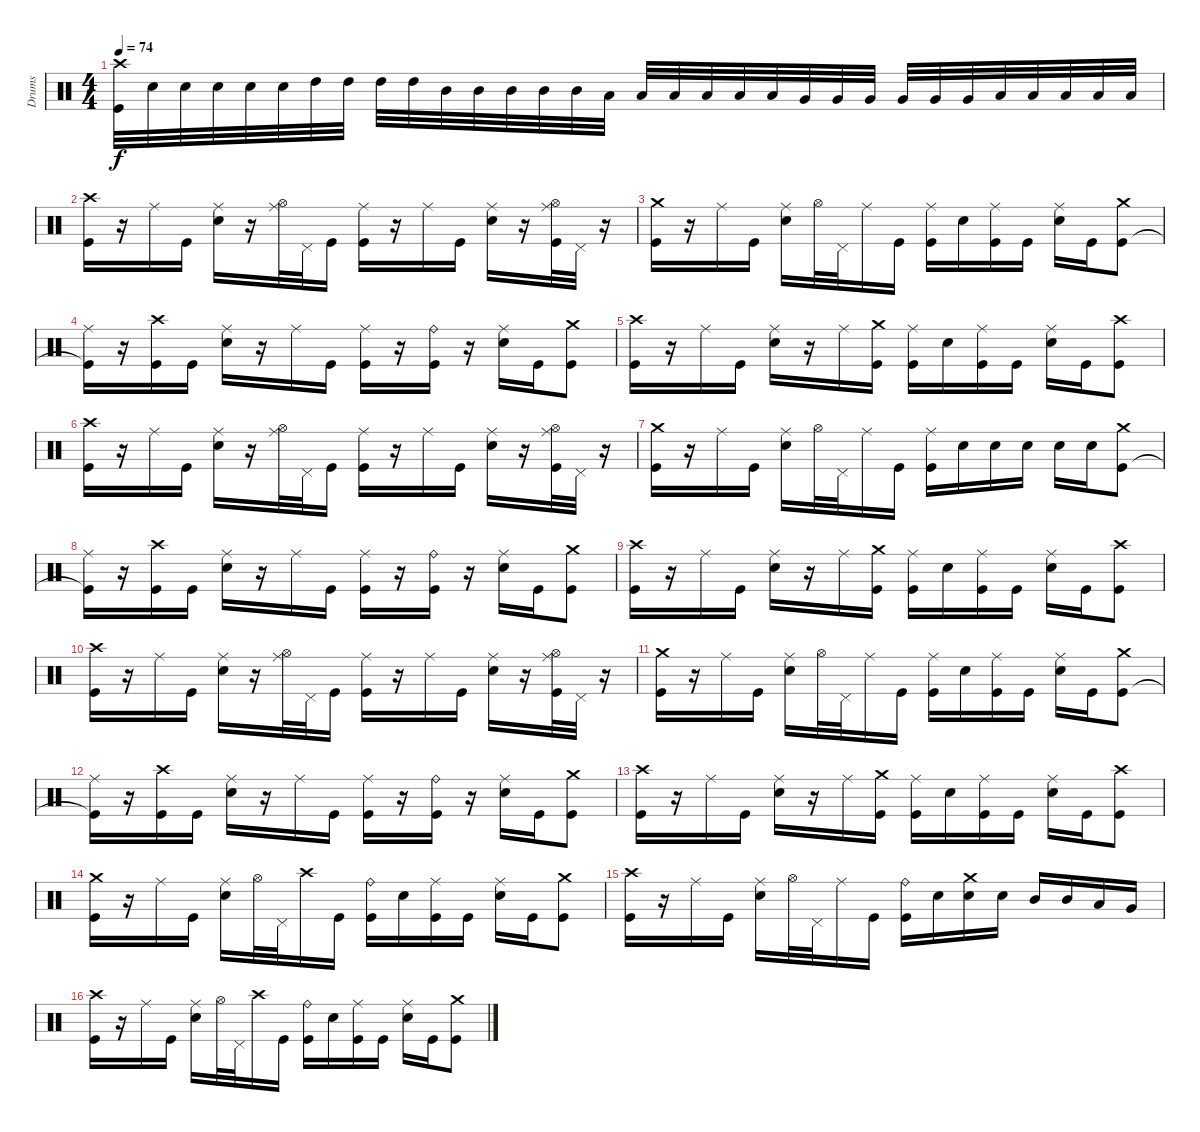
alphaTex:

\track ("Drums" "Drums") {instrument percussion}
\staff {score}
\articulation defaults
\ts (4 4)
\tempo 74
\clef neutral
\ks c
("Crash high (hit)" "Kick (hit)").32{dy f} "Electric Snare (hit)".32 "Electric Snare (hit)".32 "Electric Snare (hit)".32 "Electric Snare (hit)".32 "Electric Snare (hit)".32 "High Tom (hit)".32 "High Tom (hit)".32 "High Tom (hit)".32 "High Tom (hit)".32 "Mid Tom (hit)".32 "Mid Tom (hit)".32 "Mid Tom (hit)".32 "Mid Tom (hit)".32 "Mid Tom (hit)".32 "Low Tom (hit)".32 "Low Tom (hit)".32 "Low Tom (hit)".32 "Low Tom (hit)".32 "Low Tom (hit)".32 "Low Tom (hit)".32 "Very Low Tom (hit)".32 "Very Low Tom (hit)".32 "Very Low Tom (hit)".32 "Very Low Tom (hit)".32 "Very Low Tom (hit)".32 "Very Low Tom (hit)".32 "Low Floor Tom (hit)".32 "Low Floor Tom (hit)".32 "Low Floor Tom (hit)".32 "Low Floor Tom (hit)".32 "Low Floor Tom (hit)".32 |
("Crash high (hit)" "Kick (hit)").16 r.16 "Ride (middle)".16 "Kick (hit)".16 ("Ride (middle)" "Electric Snare (hit)").16 r.16 ("Ride (middle)" "Hi-Hat (open)").32 "Pedal Hi-Hat (hit)".32 "Kick (hit)".16 ("Ride (middle)" "Kick (hit)").16 r.16 "Ride (middle)".16 "Kick (hit)".16 ("Ride (middle)" "Electric Snare (hit)").16 r.16 ("Ride (middle)" "Kick (hit)" "Hi-Hat (open)").32 "Pedal Hi-Hat (hit)".32 r.16 |
("Crash medium (hit)" "Kick (hit)").16 r.16 "Ride (middle)".16 "Kick (hit)".16 ("Ride (middle)" "Electric Snare (hit)").16 "Hi-Hat (open)".32 "Pedal Hi-Hat (hit)".32 "Ride (middle)".16 "Kick (hit)".16 ("Ride (middle)" "Kick (hit)").16 "Electric Snare (hit)".16 ("Ride (middle)" "Kick (hit)").16 "Kick (hit)".16 ("Ride (middle)" "Electric Snare (hit)").16 "Kick (hit)".16 ("Crash medium (hit)" "Kick (hit)").8 |
("Ride (middle)" "Kick (hit)"{t}).16 r.16 ("Crash high (hit)" "Kick (hit)").16 "Kick (hit)".16 ("Ride (middle)" "Electric Snare (hit)").16 r.16 "Ride (middle)".16 "Kick (hit)".16 ("Ride (middle)" "Kick (hit)").16 r.16 ("Ride (bell)" "Kick (hit)").16 r.16 ("Ride (middle)" "Electric Snare (hit)").16 "Kick (hit)".16 ("Crash medium (hit)" "Kick (hit)").8 |
("Crash high (hit)" "Kick (hit)").16 r.16 "Ride (middle)".16 "Kick (hit)".16 ("Ride (middle)" "Electric Snare (hit)").16 r.16 "Ride (middle)".16 ("Crash medium (hit)" "Kick (hit)").16 ("Ride (middle)" "Kick (hit)").16 "Electric Snare (hit)".16 ("Ride (middle)" "Kick (hit)").16 "Kick (hit)".16 ("Ride (middle)" "Electric Snare (hit)").16 "Kick (hit)".16 ("Crash high (hit)" "Kick (hit)").8 |
("Crash high (hit)" "Kick (hit)").16 r.16 "Ride (middle)".16 "Kick (hit)".16 ("Ride (middle)" "Electric Snare (hit)").16 r.16 ("Ride (middle)" "Hi-Hat (open)").32 "Pedal Hi-Hat (hit)".32 "Kick (hit)".16 ("Ride (middle)" "Kick (hit)").16 r.16 "Ride (middle)".16 "Kick (hit)".16 ("Ride (middle)" "Electric Snare (hit)").16 r.16 ("Ride (middle)" "Kick (hit)" "Hi-Hat (open)").32 "Pedal Hi-Hat (hit)".32 r.16 |
("Crash medium (hit)" "Kick (hit)").16 r.16 "Ride (middle)".16 "Kick (hit)".16 ("Ride (middle)" "Electric Snare (hit)").16 "Hi-Hat (open)".32 "Pedal Hi-Hat (hit)".32 "Ride (middle)".16 "Kick (hit)".16 ("Ride (middle)" "Kick (hit)").16 "Electric Snare (hit)".16 "Electric Snare (hit)".16 "Electric Snare (hit)".16 "Electric Snare (hit)".16 "Electric Snare (hit)".16 ("Crash medium (hit)" "Kick (hit)").8 |
("Ride (middle)" "Kick (hit)"{t}).16 r.16 ("Crash high (hit)" "Kick (hit)").16 "Kick (hit)".16 ("Ride (middle)" "Electric Snare (hit)").16 r.16 "Ride (middle)".16 "Kick (hit)".16 ("Ride (middle)" "Kick (hit)").16 r.16 ("Ride (bell)" "Kick (hit)").16 r.16 ("Ride (middle)" "Electric Snare (hit)").16 "Kick (hit)".16 ("Crash medium (hit)" "Kick (hit)").8 |
("Crash high (hit)" "Kick (hit)").16 r.16 "Ride (middle)".16 "Kick (hit)".16 ("Ride (middle)" "Electric Snare (hit)").16 r.16 "Ride (middle)".16 ("Crash medium (hit)" "Kick (hit)").16 ("Ride (middle)" "Kick (hit)").16 "Electric Snare (hit)".16 ("Ride (middle)" "Kick (hit)").16 "Kick (hit)".16 ("Ride (middle)" "Electric Snare (hit)").16 "Kick (hit)".16 ("Crash high (hit)" "Kick (hit)").8 |
("Crash high (hit)" "Kick (hit)").16 r.16 "Ride (middle)".16 "Kick (hit)".16 ("Ride (middle)" "Electric Snare (hit)").16 r.16 ("Ride (middle)" "Hi-Hat (open)").32 "Pedal Hi-Hat (hit)".32 "Kick (hit)".16 ("Ride (middle)" "Kick (hit)").16 r.16 "Ride (middle)".16 "Kick (hit)".16 ("Ride (middle)" "Electric Snare (hit)").16 r.16 ("Ride (middle)" "Kick (hit)" "Hi-Hat (open)").32 "Pedal Hi-Hat (hit)".32 r.16 |
("Crash medium (hit)" "Kick (hit)").16 r.16 "Ride (middle)".16 "Kick (hit)".16 ("Ride (middle)" "Electric Snare (hit)").16 "Hi-Hat (open)".32 "Pedal Hi-Hat (hit)".32 "Ride (middle)".16 "Kick (hit)".16 ("Ride (middle)" "Kick (hit)").16 "Electric Snare (hit)".16 ("Ride (middle)" "Kick (hit)").16 "Kick (hit)".16 ("Ride (middle)" "Electric Snare (hit)").16 "Kick (hit)".16 ("Crash medium (hit)" "Kick (hit)").8 |
("Ride (middle)" "Kick (hit)"{t}).16 r.16 ("Crash high (hit)" "Kick (hit)").16 "Kick (hit)".16 ("Ride (middle)" "Electric Snare (hit)").16 r.16 "Ride (middle)".16 "Kick (hit)".16 ("Ride (middle)" "Kick (hit)").16 r.16 ("Ride (bell)" "Kick (hit)").16 r.16 ("Ride (middle)" "Electric Snare (hit)").16 "Kick (hit)".16 ("Crash medium (hit)" "Kick (hit)").8 |
("Crash high (hit)" "Kick (hit)").16 r.16 "Ride (middle)".16 "Kick (hit)".16 ("Ride (middle)" "Electric Snare (hit)").16 r.16 "Ride (middle)".16 ("Crash medium (hit)" "Kick (hit)").16 ("Ride (middle)" "Kick (hit)").16 "Electric Snare (hit)".16 ("Ride (middle)" "Kick (hit)").16 "Kick (hit)".16 ("Ride (middle)" "Electric Snare (hit)").16 "Kick (hit)".16 ("Crash high (hit)" "Kick (hit)").8 |
("Crash medium (hit)" "Kick (hit)").16 r.16 "Ride (middle)".16 "Kick (hit)".16 ("Ride (middle)" "Electric Snare (hit)").16 "Hi-Hat (open)".32 "Pedal Hi-Hat (hit)".32 "Crash high (hit)".16 "Kick (hit)".16 ("Ride (bell)" "Kick (hit)").16 "Electric Snare (hit)".16 ("Ride (middle)" "Kick (hit)").16 "Kick (hit)".16 ("Ride (middle)" "Electric Snare (hit)").16 "Kick (hit)".16 ("Crash medium (hit)" "Kick (hit)").8 |
("Crash high (hit)" "Kick (hit)").16 r.16 "Ride (middle)".16 "Kick (hit)".16 ("Ride (middle)" "Electric Snare (hit)").16 "Hi-Hat (open)".32 "Pedal Hi-Hat (hit)".32 "Ride (middle)".16 "Kick (hit)".16 ("Ride (bell)" "Kick (hit)").16 "Electric Snare (hit)".16 ("Crash medium (hit)" "Electric Snare (hit)").16 "Electric Snare (hit)".16 "Mid Tom (hit)".16 "Mid Tom (hit)".16 "Low Tom (hit)".16 "Very Low Tom (hit)".16 |
("Crash high (hit)" "Kick (hit)").16 r.16 "Ride (middle)".16 "Kick (hit)".16 ("Ride (middle)" "Electric Snare (hit)").16 "Hi-Hat (open)".32 "Pedal Hi-Hat (hit)".32 "Crash high (hit)".16 "Kick (hit)".16 ("Ride (bell)" "Kick (hit)").16 "Electric Snare (hit)".16 ("Ride (middle)" "Kick (hit)").16 "Kick (hit)".16 ("Ride (middle)" "Electric Snare (hit)").16 "Kick (hit)".16 ("Crash medium (hit)" "Kick (hit)").8
